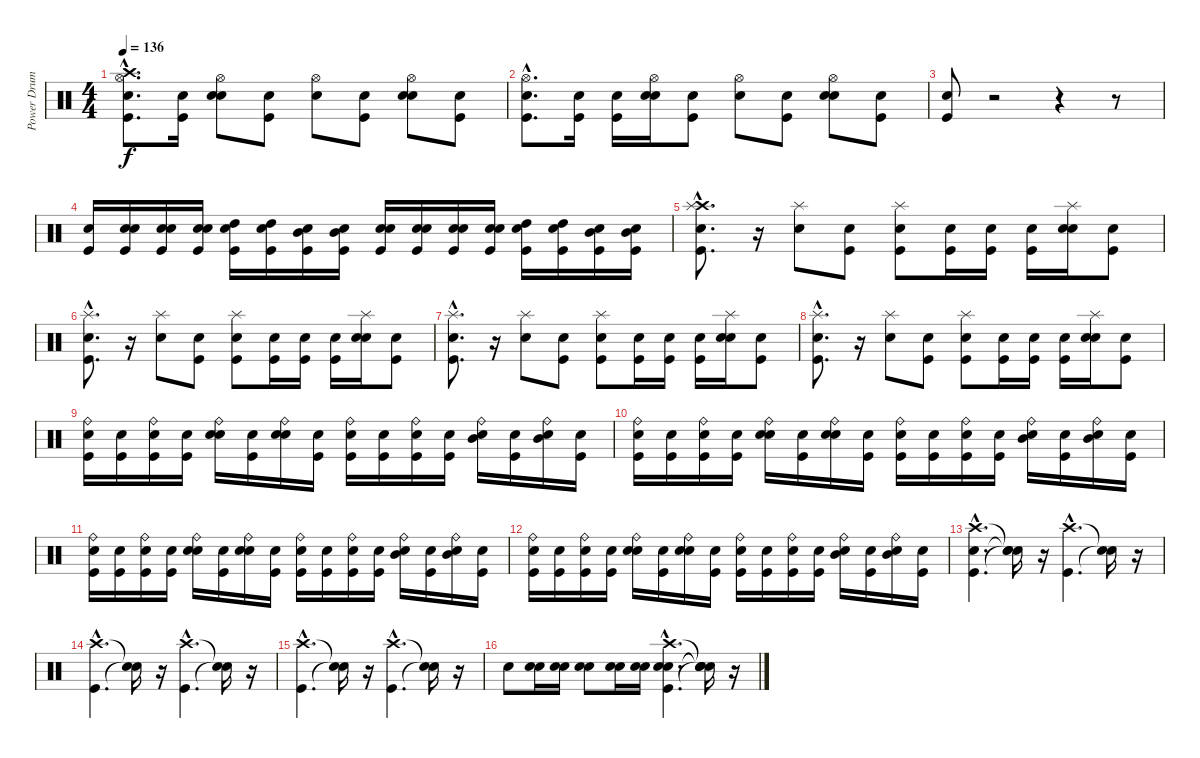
\track ("Power Drums" "Power Drum") {instrument percussion}
\staff {score}
\articulation defaults
\ts (4 4)
\tempo 136
\clef neutral
\ks c
("Snare (hit)"{hac} "Kick (hit)"{hac} "Hi-Hat (open)"{hac} "Crash high (hit)"{hac}).8{d dy f} ("Snare (hit)" "Kick (hit)").16 ("Snare (hit)" "Snare (hit) 2" "Hi-Hat (open)").8 ("Snare (hit)" "Kick (hit)").8 ("Snare (hit)" "Hi-Hat (open)").8 ("Snare (hit)" "Kick (hit)").8 ("Snare (hit)" "Snare (hit) 2" "Hi-Hat (open)").8 ("Snare (hit)" "Kick (hit)").8 |
("Snare (hit)"{hac} "Kick (hit)"{hac} "Hi-Hat (open)"{hac}).8{d} ("Snare (hit)" "Kick (hit)").16 ("Snare (hit)" "Kick (hit)").16 ("Snare (hit)" "Snare (hit) 2" "Hi-Hat (open)").16 ("Snare (hit)" "Kick (hit)").8 ("Snare (hit)" "Hi-Hat (open)").8 ("Snare (hit)" "Kick (hit)").8 ("Snare (hit)" "Snare (hit) 2" "Hi-Hat (open)").8 ("Snare (hit)" "Kick (hit)").8 |
("Snare (hit)" "Kick (hit)").8 r.2 r.4 r.8 |
("Kick (hit)" "Snare (hit) 2").16 ("Snare (hit)" "Kick (hit)" "Snare (hit) 2").16 ("Snare (hit)" "Kick (hit)" "Snare (hit) 2").16 ("Snare (hit)" "Kick (hit)" "Snare (hit) 2").16 ("Snare (hit)" "Kick (hit)" "High Tom (hit)").16 ("Snare (hit)" "Kick (hit)" "High Tom (hit)").16 ("Snare (hit)" "Kick (hit)" "Mid Tom (hit)").16 ("Snare (hit)" "Kick (hit)" "Mid Tom (hit)").16 ("Snare (hit)" "Kick (hit)" "Snare (hit) 2").16 ("Snare (hit)" "Kick (hit)" "Snare (hit) 2").16 ("Snare (hit)" "Kick (hit)" "Snare (hit) 2").16 ("Snare (hit)" "Kick (hit)" "Snare (hit) 2").16 ("Snare (hit)" "Kick (hit)" "High Tom (hit)").16 ("Snare (hit)" "Kick (hit)" "High Tom (hit)").16 ("Snare (hit)" "Kick (hit)" "Mid Tom (hit)").16 ("Snare (hit)" "Kick (hit)" "Mid Tom (hit)").16 |
("Snare (hit)"{hac} "Kick (hit)"{hac} "Crash high (hit)"{hac} "Splash (hit)"{hac}).8{d} r.16 ("Snare (hit) 2" "Splash (hit)").8 ("Snare (hit)" "Kick (hit)").8 ("Snare (hit)" "Kick (hit)" "Splash (hit)").8 ("Snare (hit)" "Kick (hit)").16 ("Snare (hit)" "Kick (hit)").16 ("Snare (hit)" "Kick (hit)").16 ("Snare (hit)" "Snare (hit) 2" "Splash (hit)").16 ("Snare (hit)" "Kick (hit)").8 |
("Snare (hit)"{hac} "Kick (hit)"{hac} "Splash (hit)"{hac}).8{d} r.16 ("Snare (hit) 2" "Splash (hit)").8 ("Snare (hit)" "Kick (hit)").8 ("Snare (hit)" "Kick (hit)" "Splash (hit)").8 ("Snare (hit)" "Kick (hit)").16 ("Snare (hit)" "Kick (hit)").16 ("Snare (hit)" "Kick (hit)").16 ("Snare (hit)" "Snare (hit) 2" "Splash (hit)").16 ("Snare (hit)" "Kick (hit)").8 |
("Snare (hit)"{hac} "Kick (hit)"{hac} "Splash (hit)"{hac}).8{d} r.16 ("Snare (hit) 2" "Splash (hit)").8 ("Snare (hit)" "Kick (hit)").8 ("Snare (hit)" "Kick (hit)" "Splash (hit)").8 ("Snare (hit)" "Kick (hit)").16 ("Snare (hit)" "Kick (hit)").16 ("Snare (hit)" "Kick (hit)").16 ("Snare (hit)" "Snare (hit) 2" "Splash (hit)").16 ("Snare (hit)" "Kick (hit)").8 |
("Snare (hit)"{hac} "Kick (hit)"{hac} "Splash (hit)"{hac}).8{d} r.16 ("Snare (hit) 2" "Splash (hit)").8 ("Snare (hit)" "Kick (hit)").8 ("Snare (hit)" "Kick (hit)" "Splash (hit)").8 ("Snare (hit)" "Kick (hit)").16 ("Snare (hit)" "Kick (hit)").16 ("Snare (hit)" "Kick (hit)").16 ("Snare (hit)" "Snare (hit) 2" "Splash (hit)").16 ("Snare (hit)" "Kick (hit)").8 |
("Snare (hit)" "Kick (hit)" "Ride (bell)").16 ("Snare (hit)" "Kick (hit)").16 ("Snare (hit)" "Kick (hit)" "Ride (bell)").16 ("Snare (hit)" "Kick (hit)").16 ("Snare (hit)" "Snare (hit) 2" "Ride (bell)").16 ("Snare (hit)" "Kick (hit)").16 ("Snare (hit)" "Snare (hit) 2" "Ride (bell)").16 ("Snare (hit)" "Kick (hit)").16 ("Snare (hit)" "Kick (hit)" "Ride (bell)").16 ("Snare (hit)" "Kick (hit)").16 ("Snare (hit)" "Kick (hit)" "Ride (bell)").16 ("Snare (hit)" "Kick (hit)").16 ("Snare (hit)" "Mid Tom (hit)" "Ride (bell)").16 ("Snare (hit)" "Kick (hit)").16 ("Snare (hit)" "Mid Tom (hit)" "Ride (bell)").16 ("Snare (hit)" "Kick (hit)").16 |
("Snare (hit)" "Kick (hit)" "Ride (bell)").16 ("Snare (hit)" "Kick (hit)").16 ("Snare (hit)" "Kick (hit)" "Ride (bell)").16 ("Snare (hit)" "Kick (hit)").16 ("Snare (hit)" "Snare (hit) 2" "Ride (bell)").16 ("Snare (hit)" "Kick (hit)").16 ("Snare (hit)" "Snare (hit) 2" "Ride (bell)").16 ("Snare (hit)" "Kick (hit)").16 ("Snare (hit)" "Kick (hit)" "Ride (bell)").16 ("Snare (hit)" "Kick (hit)").16 ("Snare (hit)" "Kick (hit)" "Ride (bell)").16 ("Snare (hit)" "Kick (hit)").16 ("Snare (hit)" "Mid Tom (hit)" "Ride (bell)").16 ("Snare (hit)" "Kick (hit)").16 ("Snare (hit)" "Mid Tom (hit)" "Ride (bell)").16 ("Snare (hit)" "Kick (hit)").16 |
("Snare (hit)" "Kick (hit)" "Ride (bell)").16 ("Snare (hit)" "Kick (hit)").16 ("Snare (hit)" "Kick (hit)" "Ride (bell)").16 ("Snare (hit)" "Kick (hit)").16 ("Snare (hit)" "Snare (hit) 2" "Ride (bell)").16 ("Snare (hit)" "Kick (hit)").16 ("Snare (hit)" "Snare (hit) 2" "Ride (bell)").16 ("Snare (hit)" "Kick (hit)").16 ("Snare (hit)" "Kick (hit)" "Ride (bell)").16 ("Snare (hit)" "Kick (hit)").16 ("Snare (hit)" "Kick (hit)" "Ride (bell)").16 ("Snare (hit)" "Kick (hit)").16 ("Snare (hit)" "Mid Tom (hit)" "Ride (bell)").16 ("Snare (hit)" "Kick (hit)").16 ("Snare (hit)" "Mid Tom (hit)" "Ride (bell)").16 ("Snare (hit)" "Kick (hit)").16 |
("Snare (hit)" "Kick (hit)" "Ride (bell)").16 ("Snare (hit)" "Kick (hit)").16 ("Snare (hit)" "Kick (hit)" "Ride (bell)").16 ("Snare (hit)" "Kick (hit)").16 ("Snare (hit)" "Snare (hit) 2" "Ride (bell)").16 ("Snare (hit)" "Kick (hit)").16 ("Snare (hit)" "Snare (hit) 2" "Ride (bell)").16 ("Snare (hit)" "Kick (hit)").16 ("Snare (hit)" "Kick (hit)" "Ride (bell)").16 ("Snare (hit)" "Kick (hit)").16 ("Snare (hit)" "Kick (hit)" "Ride (bell)").16 ("Snare (hit)" "Kick (hit)").16 ("Snare (hit)" "Mid Tom (hit)" "Ride (bell)").16 ("Snare (hit)" "Kick (hit)").16 ("Snare (hit)" "Mid Tom (hit)" "Ride (bell)").16 ("Snare (hit)" "Kick (hit)").16 |
("Snare (hit)"{hac} "Kick (hit)"{hac} "Crash high (hit)"{hac}).4{d} ("Snare (hit)"{t} "Snare (hit)"{t} "Snare (hit)"{t}).16 r.16 ("Kick (hit)"{hac} "Crash high (hit)"{hac}).4{d} ("Snare (hit)"{t} "Snare (hit)"{t}).16 r.16 |
("Kick (hit)"{hac} "Crash high (hit)"{hac}).4{d} ("Snare (hit)"{t} "Snare (hit)"{t}).16 r.16 ("Kick (hit)"{hac} "Crash high (hit)"{hac}).4{d} ("Snare (hit)"{t} "Snare (hit)"{t}).16 r.16 |
("Kick (hit)"{hac} "Crash high (hit)"{hac}).4{d} ("Snare (hit)"{t} "Snare (hit)"{t}).16 r.16 ("Kick (hit)"{hac} "Crash high (hit)"{hac}).4{d} ("Snare (hit)"{t} "Snare (hit)"{t}).16 r.16 |
"Snare (hit) 2".8 ("Snare (hit)" "Snare (hit) 2").16 ("Snare (hit)" "Snare (hit) 2").16 ("Snare (hit)" "Snare (hit) 2").8 ("Snare (hit)" "Snare (hit) 2").16 ("Snare (hit)" "Snare (hit) 2").16 ("Snare (hit)"{hac} "Kick (hit)"{hac} "Snare (hit) 2"{hac} "Crash high (hit)"{hac}).4{d} ("Snare (hit)"{t} "Snare (hit)"{t} "Snare (hit)"{t} "Snare (hit)"{t}).16 r.16
